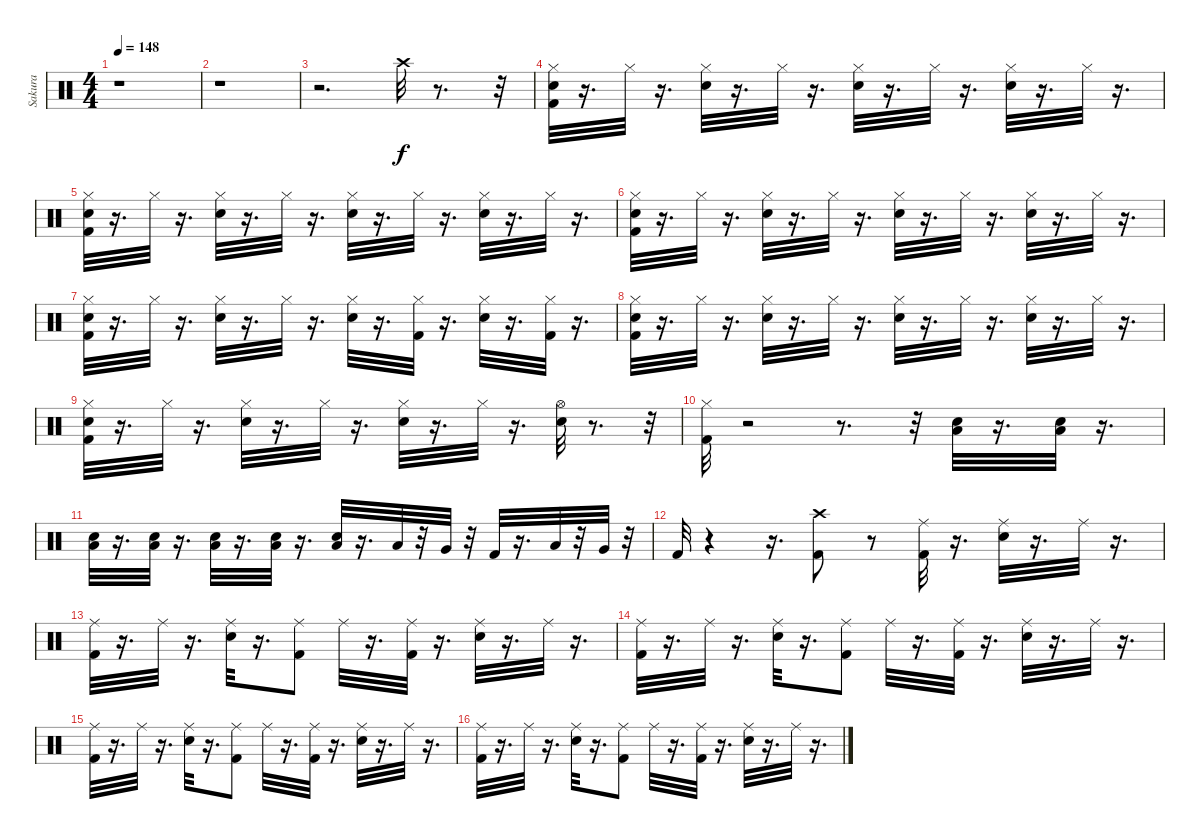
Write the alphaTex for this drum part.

\track ("Sakura" "Sakura") {instrument percussion}
\staff {score}
\articulation defaults
\ts (4 4)
\tempo 148
\clef neutral
\ks c
r.1{dy f} |
r.1 |
r.2{d} "Crash high (hit)".32 r.8{d} r.32 |
("Hi-Hat (closed)" "Snare (hit) 2" "Kick (hit) 2").32 r.16{d} "Hi-Hat (closed)".32 r.16{d} ("Hi-Hat (closed)" "Snare (hit) 2").32 r.16{d} "Hi-Hat (closed)".32 r.16{d} ("Hi-Hat (closed)" "Snare (hit) 2").32 r.16{d} "Hi-Hat (closed)".32 r.16{d} ("Hi-Hat (closed)" "Snare (hit) 2").32 r.16{d} "Hi-Hat (closed)".32 r.16{d} |
("Hi-Hat (closed)" "Snare (hit) 2" "Kick (hit) 2").32 r.16{d} "Hi-Hat (closed)".32 r.16{d} ("Hi-Hat (closed)" "Snare (hit) 2").32 r.16{d} "Hi-Hat (closed)".32 r.16{d} ("Hi-Hat (closed)" "Snare (hit) 2").32 r.16{d} "Hi-Hat (closed)".32 r.16{d} ("Hi-Hat (closed)" "Snare (hit) 2").32 r.16{d} "Hi-Hat (closed)".32 r.16{d} |
("Hi-Hat (closed)" "Snare (hit) 2" "Kick (hit) 2").32 r.16{d} "Hi-Hat (closed)".32 r.16{d} ("Hi-Hat (closed)" "Snare (hit) 2").32 r.16{d} "Hi-Hat (closed)".32 r.16{d} ("Hi-Hat (closed)" "Snare (hit) 2").32 r.16{d} "Hi-Hat (closed)".32 r.16{d} ("Hi-Hat (closed)" "Snare (hit) 2").32 r.16{d} "Hi-Hat (closed)".32 r.16{d} |
("Hi-Hat (closed)" "Snare (hit) 2" "Kick (hit) 2").32 r.16{d} "Hi-Hat (closed)".32 r.16{d} ("Hi-Hat (closed)" "Snare (hit) 2").32 r.16{d} "Hi-Hat (closed)".32 r.16{d} ("Hi-Hat (closed)" "Snare (hit) 2").32 r.16{d} ("Hi-Hat (closed)" "Kick (hit) 2").32 r.16{d} ("Hi-Hat (closed)" "Snare (hit) 2").32 r.16{d} ("Hi-Hat (closed)" "Kick (hit) 2").32 r.16{d} |
("Hi-Hat (closed)" "Snare (hit) 2" "Kick (hit) 2").32 r.16{d} "Hi-Hat (closed)".32 r.16{d} ("Hi-Hat (closed)" "Snare (hit) 2").32 r.16{d} "Hi-Hat (closed)".32 r.16{d} ("Hi-Hat (closed)" "Snare (hit) 2").32 r.16{d} "Hi-Hat (closed)".32 r.16{d} ("Hi-Hat (closed)" "Snare (hit) 2").32 r.16{d} "Hi-Hat (closed)".32 r.16{d} |
("Hi-Hat (closed)" "Snare (hit) 2" "Kick (hit) 2").32 r.16{d} "Hi-Hat (closed)".32 r.16{d} ("Hi-Hat (closed)" "Snare (hit) 2").32 r.16{d} "Hi-Hat (closed)".32 r.16{d} ("Hi-Hat (closed)" "Snare (hit) 2").32 r.16{d} "Hi-Hat (closed)".32 r.16{d} ("Hi-Hat (open)" "Snare (hit) 2").32 r.8{d} r.32 |
("Hi-Hat (closed)" "Kick (hit) 2").32 r.2 r.8{d} r.32 ("Snare (hit) 2" "Low Tom (hit)").32 r.16{d} ("Snare (hit) 2" "Low Tom (hit)").32 r.16{d} |
("Snare (hit) 2" "Low Tom (hit)").32 r.16{d} ("Snare (hit) 2" "Low Tom (hit)").32 r.16{d} ("Snare (hit) 2" "Low Tom (hit)").32 r.16{d} ("Snare (hit) 2" "Low Tom (hit)").32 r.16{d} ("Snare (hit) 2" "Low Tom (hit)").32 r.16{d} "Low Tom (hit)".32 r.32 "Very Low Tom (hit)".32 r.32 "Kick (hit) 2".32 r.16{d} "Low Tom (hit)".32 r.32 "Very Low Tom (hit)".32 r.32 |
"Kick (hit) 2".32 r.4 r.16{d} ("Crash high (hit)" "Kick (hit) 2").8 r.8 ("Ride (middle)" "Kick (hit) 2").32 r.16{d} ("Ride (middle)" "Snare (hit) 2").32 r.16{d} "Ride (middle)".32 r.16{d} |
("Ride (middle)" "Kick (hit) 2").32 r.16{d} "Ride (middle)".32 r.16{d} ("Snare (hit) 2" "Ride (middle)").32 r.16{d} ("Ride (middle)" "Kick (hit) 2").8 "Ride (middle)".32 r.16{d} ("Kick (hit) 2" "Ride (middle)").32 r.16{d} ("Ride (middle)" "Snare (hit) 2").32 r.16{d} "Ride (middle)".32 r.16{d} |
("Ride (middle)" "Kick (hit) 2").32 r.16{d} "Ride (middle)".32 r.16{d} ("Snare (hit) 2" "Ride (middle)").32 r.16{d} ("Ride (middle)" "Kick (hit) 2").8 "Ride (middle)".32 r.16{d} ("Kick (hit) 2" "Ride (middle)").32 r.16{d} ("Ride (middle)" "Snare (hit) 2").32 r.16{d} "Ride (middle)".32 r.16{d} |
("Ride (middle)" "Kick (hit) 2").32 r.16{d} "Ride (middle)".32 r.16{d} ("Snare (hit) 2" "Ride (middle)").32 r.16{d} ("Ride (middle)" "Kick (hit) 2").8 "Ride (middle)".32 r.16{d} ("Kick (hit) 2" "Ride (middle)").32 r.16{d} ("Ride (middle)" "Snare (hit) 2").32 r.16{d} "Ride (middle)".32 r.16{d} |
("Ride (middle)" "Kick (hit) 2").32 r.16{d} "Ride (middle)".32 r.16{d} ("Snare (hit) 2" "Ride (middle)").32 r.16{d} ("Ride (middle)" "Kick (hit) 2").8 "Ride (middle)".32 r.16{d} ("Kick (hit) 2" "Ride (middle)").32 r.16{d} ("Ride (middle)" "Snare (hit) 2").32 r.16{d} "Ride (middle)".32 r.16{d}
